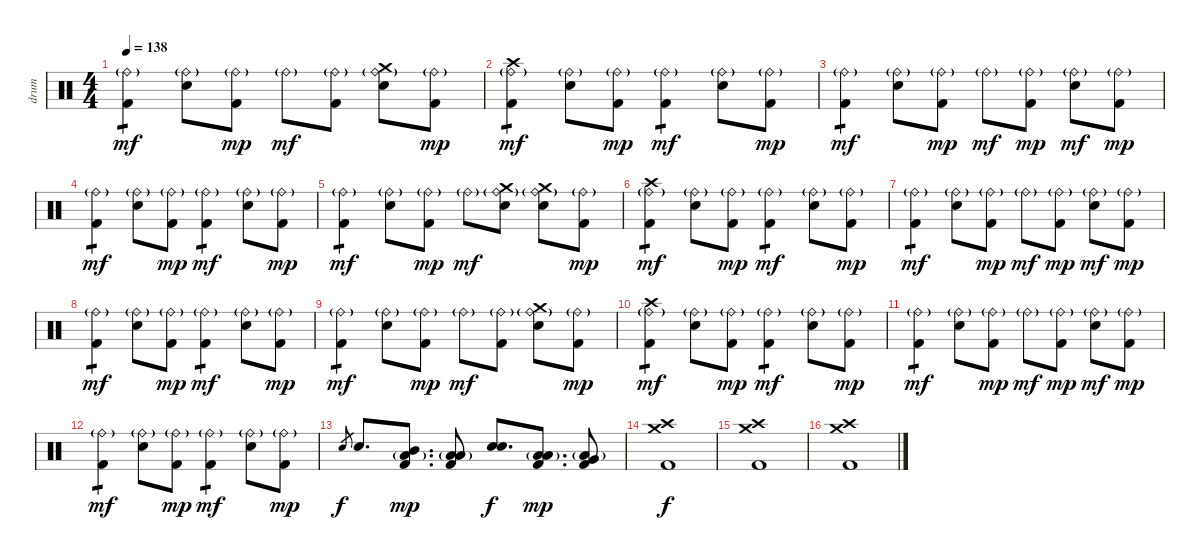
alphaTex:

\track ("drum" "drum") {instrument percussion}
\staff {score}
\articulation defaults
\ts (4 4)
\tempo 138
\clef neutral
\ks c
("Ride (bell)"{g} "Kick (hit) 2").4{tp 1 dy mf} ("Ride (bell)"{g} "Snare (hit) 2").8 ("Ride (bell)"{g} "Kick (hit) 2").8{dy mp} "Ride (bell)"{g}.8{dy mf} ("Ride (bell)"{g} "Kick (hit) 2").8 ("Crash medium (hit)" "Ride (bell)"{g} "Snare (hit) 2").8 ("Ride (bell)"{g} "Kick (hit) 2").8{dy mp} |
("Crash high (hit)" "Ride (bell)"{g} "Kick (hit) 2").4{tp 1 dy mf} ("Ride (bell)"{g} "Snare (hit) 2").8 ("Ride (bell)"{g} "Kick (hit) 2").8{dy mp} ("Ride (bell)"{g} "Kick (hit) 2").4{tp 1 dy mf} ("Ride (bell)"{g} "Snare (hit) 2").8 ("Ride (bell)"{g} "Kick (hit) 2").8{dy mp} |
("Ride (bell)"{g} "Kick (hit) 2").4{tp 1 dy mf} ("Ride (bell)"{g} "Snare (hit) 2").8 ("Ride (bell)"{g} "Kick (hit) 2").8{dy mp} "Ride (bell)"{g}.8{dy mf} ("Ride (bell)"{g} "Kick (hit) 2").8{dy mp} ("Ride (bell)"{g} "Snare (hit) 2").8{dy mf} ("Ride (bell)"{g} "Kick (hit) 2").8{dy mp} |
("Ride (bell)"{g} "Kick (hit) 2").4{tp 1 dy mf} ("Ride (bell)"{g} "Snare (hit) 2").8 ("Ride (bell)"{g} "Kick (hit) 2").8{dy mp} ("Ride (bell)"{g} "Kick (hit) 2").4{tp 1 dy mf} ("Ride (bell)"{g} "Snare (hit) 2").8 ("Ride (bell)"{g} "Kick (hit) 2").8{dy mp} |
("Ride (bell)"{g} "Kick (hit) 2").4{tp 1 dy mf} ("Ride (bell)"{g} "Snare (hit) 2").8 ("Ride (bell)"{g} "Kick (hit) 2").8{dy mp} "Ride (bell)"{g}.8{dy mf} ("Crash medium (hit)" "Ride (bell)"{g} "Snare (hit) 2").8 ("Crash medium (hit)" "Ride (bell)"{g} "Snare (hit) 2").8 ("Ride (bell)"{g} "Kick (hit) 2").8{dy mp} |
("Crash high (hit)" "Ride (bell)"{g} "Kick (hit) 2").4{tp 1 dy mf} ("Ride (bell)"{g} "Snare (hit) 2").8 ("Ride (bell)"{g} "Kick (hit) 2").8{dy mp} ("Ride (bell)"{g} "Kick (hit) 2").4{tp 1 dy mf} ("Ride (bell)"{g} "Snare (hit) 2").8 ("Ride (bell)"{g} "Kick (hit) 2").8{dy mp} |
("Ride (bell)"{g} "Kick (hit) 2").4{tp 1 dy mf} ("Ride (bell)"{g} "Snare (hit) 2").8 ("Ride (bell)"{g} "Kick (hit) 2").8{dy mp} "Ride (bell)"{g}.8{dy mf} ("Ride (bell)"{g} "Kick (hit) 2").8{dy mp} ("Ride (bell)"{g} "Snare (hit) 2").8{dy mf} ("Ride (bell)"{g} "Kick (hit) 2").8{dy mp} |
("Ride (bell)"{g} "Kick (hit) 2").4{tp 1 dy mf} ("Ride (bell)"{g} "Snare (hit) 2").8 ("Ride (bell)"{g} "Kick (hit) 2").8{dy mp} ("Ride (bell)"{g} "Kick (hit) 2").4{tp 1 dy mf} ("Ride (bell)"{g} "Snare (hit) 2").8 ("Ride (bell)"{g} "Kick (hit) 2").8{dy mp} |
("Ride (bell)"{g} "Kick (hit) 2").4{tp 1 dy mf} ("Ride (bell)"{g} "Snare (hit) 2").8 ("Ride (bell)"{g} "Kick (hit) 2").8{dy mp} "Ride (bell)"{g}.8{dy mf} ("Ride (bell)"{g} "Kick (hit) 2").8 ("Crash medium (hit)" "Ride (bell)"{g} "Snare (hit) 2").8 ("Ride (bell)"{g} "Kick (hit) 2").8{dy mp} |
("Crash high (hit)" "Ride (bell)"{g} "Kick (hit) 2").4{tp 1 dy mf} ("Ride (bell)"{g} "Snare (hit) 2").8 ("Ride (bell)"{g} "Kick (hit) 2").8{dy mp} ("Ride (bell)"{g} "Kick (hit) 2").4{tp 1 dy mf} ("Ride (bell)"{g} "Snare (hit) 2").8 ("Ride (bell)"{g} "Kick (hit) 2").8{dy mp} |
("Ride (bell)"{g} "Kick (hit) 2").4{tp 1 dy mf} ("Ride (bell)"{g} "Snare (hit) 2").8 ("Ride (bell)"{g} "Kick (hit) 2").8{dy mp} "Ride (bell)"{g}.8{dy mf} ("Ride (bell)"{g} "Kick (hit) 2").8{dy mp} ("Ride (bell)"{g} "Snare (hit) 2").8{dy mf} ("Ride (bell)"{g} "Kick (hit) 2").8{dy mp} |
("Ride (bell)"{g} "Kick (hit) 2").4{tp 1 dy mf} ("Ride (bell)"{g} "Snare (hit) 2").8 ("Ride (bell)"{g} "Kick (hit) 2").8{dy mp} ("Ride (bell)"{g} "Kick (hit) 2").4{tp 1 dy mf} ("Ride (bell)"{g} "Snare (hit) 2").8 ("Ride (bell)"{g} "Kick (hit) 2").8{dy mp} |
"Snare (hit) 2".8{gr dy f} "Snare (hit) 2".8{d} ("Low Floor Tom (hit)"{g} "Mid Tom (hit)" "Kick (hit) 2").8{d dy mp} ("Low Floor Tom (hit)"{g} "Low Tom (hit)" "Kick (hit) 2").8 ("Snare (hit) 2" "Snare (hit) 2").8{d bd 240 dy f} ("Low Floor Tom (hit)"{g} "Low Tom (hit)" "Kick (hit) 2").8{d dy mp} ("Low Floor Tom (hit)"{g} "Very Low Tom (hit)" "Kick (hit) 2").8 |
("Crash high (hit)" "Crash medium (hit)" "Kick (hit) 2").1{dy f} |
("Crash high (hit)" "Crash medium (hit)" "Kick (hit) 2").1 |
("Crash high (hit)" "Crash medium (hit)" "Kick (hit) 2").1
